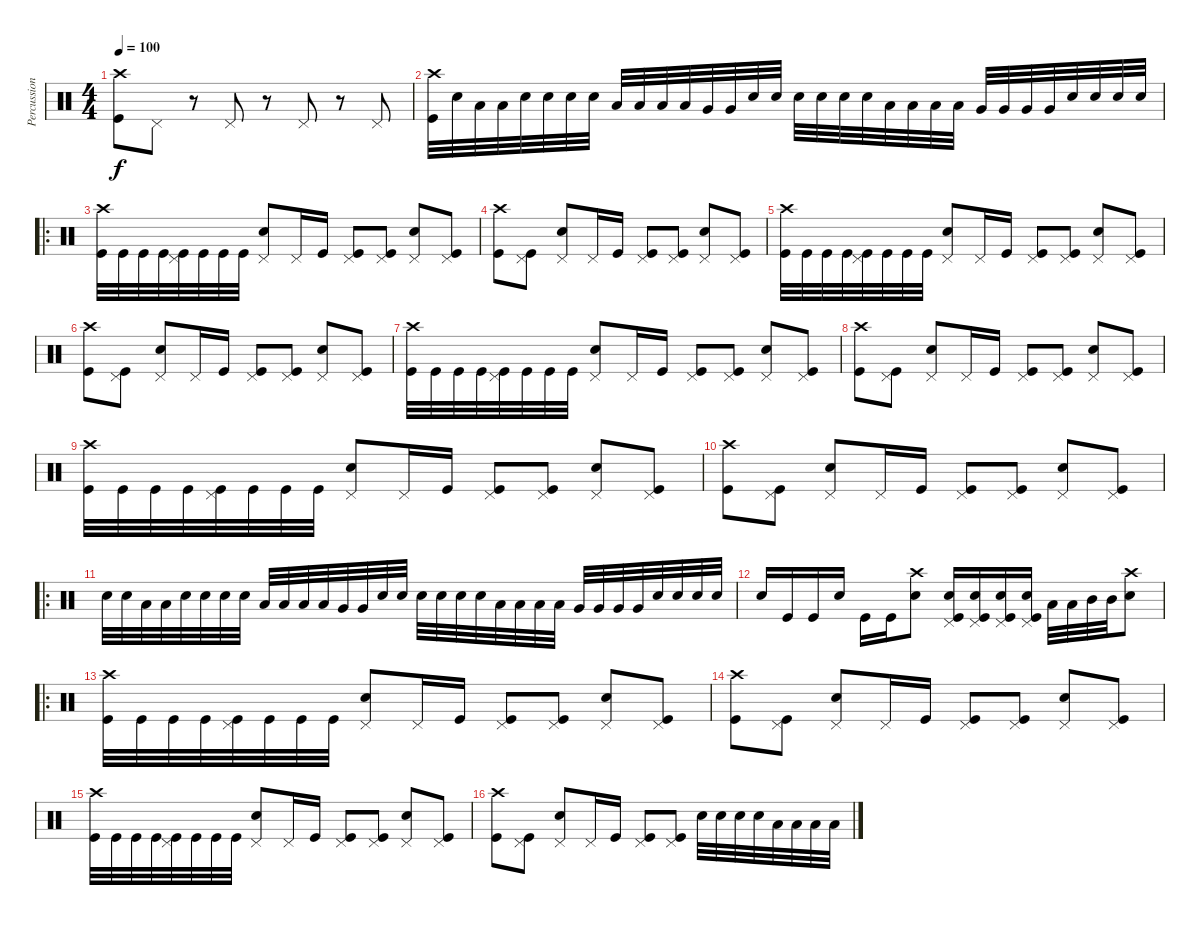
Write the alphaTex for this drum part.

\track ("Percussion" "Percussion") {instrument percussion}
\staff {score}
\articulation defaults
\ts (4 4)
\tempo 100
\clef neutral
\ks c
("Crash high (hit)" "Kick (hit)").8{dy f} "Pedal Hi-Hat (hit)".8 r.8 "Pedal Hi-Hat (hit)".8 r.8 "Pedal Hi-Hat (hit)".8 r.8 "Pedal Hi-Hat (hit)".8 |
("Crash high (hit)" "Kick (hit)").32 "Electric Snare (hit)".32 "Low Tom (hit)".32 "Low Tom (hit)".32 "Electric Snare (hit)".32 "Electric Snare (hit)".32 "Electric Snare (hit)".32 "Electric Snare (hit)".32 "Low Tom (hit)".32 "Low Tom (hit)".32 "Low Tom (hit)".32 "Low Tom (hit)".32 "Very Low Tom (hit)".32 "Very Low Tom (hit)".32 "Electric Snare (hit)".32 "Electric Snare (hit)".32 "Electric Snare (hit)".32 "Electric Snare (hit)".32 "Electric Snare (hit)".32 "Electric Snare (hit)".32 "Low Tom (hit)".32 "Low Tom (hit)".32 "Low Tom (hit)".32 "Low Tom (hit)".32 "Very Low Tom (hit)".32 "Very Low Tom (hit)".32 "Very Low Tom (hit)".32 "Very Low Tom (hit)".32 "Electric Snare (hit)".32 "Electric Snare (hit)".32 "Electric Snare (hit)".32 "Electric Snare (hit)".32 |
\ro
("Crash high (hit)" "Kick (hit)").32 "Kick (hit)".32 "Kick (hit)".32 "Kick (hit)".32 ("Pedal Hi-Hat (hit)" "Kick (hit)").32 "Kick (hit)".32 "Kick (hit)".32 "Kick (hit)".32 ("Pedal Hi-Hat (hit)" "Electric Snare (hit)").8 "Pedal Hi-Hat (hit)".16 "Kick (hit)".16 ("Pedal Hi-Hat (hit)" "Kick (hit)").8 ("Pedal Hi-Hat (hit)" "Kick (hit)").8 ("Pedal Hi-Hat (hit)" "Electric Snare (hit)").8 ("Pedal Hi-Hat (hit)" "Kick (hit)").8 |
("Crash high (hit)" "Kick (hit)").8 ("Pedal Hi-Hat (hit)" "Kick (hit)").8 ("Pedal Hi-Hat (hit)" "Electric Snare (hit)").8 "Pedal Hi-Hat (hit)".16 "Kick (hit)".16 ("Pedal Hi-Hat (hit)" "Kick (hit)").8 ("Pedal Hi-Hat (hit)" "Kick (hit)").8 ("Pedal Hi-Hat (hit)" "Electric Snare (hit)").8 ("Pedal Hi-Hat (hit)" "Kick (hit)").8 |
("Crash high (hit)" "Kick (hit)").32 "Kick (hit)".32 "Kick (hit)".32 "Kick (hit)".32 ("Pedal Hi-Hat (hit)" "Kick (hit)").32 "Kick (hit)".32 "Kick (hit)".32 "Kick (hit)".32 ("Pedal Hi-Hat (hit)" "Electric Snare (hit)").8 "Pedal Hi-Hat (hit)".16 "Kick (hit)".16 ("Pedal Hi-Hat (hit)" "Kick (hit)").8 ("Pedal Hi-Hat (hit)" "Kick (hit)").8 ("Pedal Hi-Hat (hit)" "Electric Snare (hit)").8 ("Pedal Hi-Hat (hit)" "Kick (hit)").8 |
("Crash high (hit)" "Kick (hit)").8 ("Pedal Hi-Hat (hit)" "Kick (hit)").8 ("Pedal Hi-Hat (hit)" "Electric Snare (hit)").8 "Pedal Hi-Hat (hit)".16 "Kick (hit)".16 ("Pedal Hi-Hat (hit)" "Kick (hit)").8 ("Pedal Hi-Hat (hit)" "Kick (hit)").8 ("Pedal Hi-Hat (hit)" "Electric Snare (hit)").8 ("Pedal Hi-Hat (hit)" "Kick (hit)").8 |
("Crash high (hit)" "Kick (hit)").32 "Kick (hit)".32 "Kick (hit)".32 "Kick (hit)".32 ("Pedal Hi-Hat (hit)" "Kick (hit)").32 "Kick (hit)".32 "Kick (hit)".32 "Kick (hit)".32 ("Pedal Hi-Hat (hit)" "Electric Snare (hit)").8 "Pedal Hi-Hat (hit)".16 "Kick (hit)".16 ("Pedal Hi-Hat (hit)" "Kick (hit)").8 ("Pedal Hi-Hat (hit)" "Kick (hit)").8 ("Pedal Hi-Hat (hit)" "Electric Snare (hit)").8 ("Pedal Hi-Hat (hit)" "Kick (hit)").8 |
("Crash high (hit)" "Kick (hit)").8 ("Pedal Hi-Hat (hit)" "Kick (hit)").8 ("Pedal Hi-Hat (hit)" "Electric Snare (hit)").8 "Pedal Hi-Hat (hit)".16 "Kick (hit)".16 ("Pedal Hi-Hat (hit)" "Kick (hit)").8 ("Pedal Hi-Hat (hit)" "Kick (hit)").8 ("Pedal Hi-Hat (hit)" "Electric Snare (hit)").8 ("Pedal Hi-Hat (hit)" "Kick (hit)").8 |
("Crash high (hit)" "Kick (hit)").32 "Kick (hit)".32 "Kick (hit)".32 "Kick (hit)".32 ("Pedal Hi-Hat (hit)" "Kick (hit)").32 "Kick (hit)".32 "Kick (hit)".32 "Kick (hit)".32 ("Pedal Hi-Hat (hit)" "Electric Snare (hit)").8 "Pedal Hi-Hat (hit)".16 "Kick (hit)".16 ("Pedal Hi-Hat (hit)" "Kick (hit)").8 ("Pedal Hi-Hat (hit)" "Kick (hit)").8 ("Pedal Hi-Hat (hit)" "Electric Snare (hit)").8 ("Pedal Hi-Hat (hit)" "Kick (hit)").8 |
("Crash high (hit)" "Kick (hit)").8 ("Pedal Hi-Hat (hit)" "Kick (hit)").8 ("Pedal Hi-Hat (hit)" "Electric Snare (hit)").8 "Pedal Hi-Hat (hit)".16 "Kick (hit)".16 ("Pedal Hi-Hat (hit)" "Kick (hit)").8 ("Pedal Hi-Hat (hit)" "Kick (hit)").8 ("Pedal Hi-Hat (hit)" "Electric Snare (hit)").8 ("Pedal Hi-Hat (hit)" "Kick (hit)").8 |
\ro "Electric Snare (hit)".32 "Electric Snare (hit)".32 "Low Tom (hit)".32 "Low Tom (hit)".32 "Electric Snare (hit)".32 "Electric Snare (hit)".32 "Electric Snare (hit)".32 "Electric Snare (hit)".32 "Low Tom (hit)".32 "Low Tom (hit)".32 "Low Tom (hit)".32 "Low Tom (hit)".32 "Very Low Tom (hit)".32 "Very Low Tom (hit)".32 "Electric Snare (hit)".32 "Electric Snare (hit)".32 "Electric Snare (hit)".32 "Electric Snare (hit)".32 "Electric Snare (hit)".32 "Electric Snare (hit)".32 "Low Tom (hit)".32 "Low Tom (hit)".32 "Low Tom (hit)".32 "Low Tom (hit)".32 "Very Low Tom (hit)".32 "Very Low Tom (hit)".32 "Very Low Tom (hit)".32 "Very Low Tom (hit)".32 "Electric Snare (hit)".32 "Electric Snare (hit)".32 "Electric Snare (hit)".32 "Electric Snare (hit)".32
|
"Electric Snare (hit)".16 "Kick (hit)".16 "Kick (hit)".16 "Electric Snare (hit)".16 "Kick (hit)".16 "Kick (hit)".16 ("Crash high (hit)" "Electric Snare (hit)").8 ("Pedal Hi-Hat (hit)" "Electric Snare (hit)" "Kick (hit)").16 ("Pedal Hi-Hat (hit)" "Electric Snare (hit)" "Kick (hit)").16 ("Pedal Hi-Hat (hit)" "Electric Snare (hit)" "Kick (hit)").16 ("Pedal Hi-Hat (hit)" "Electric Snare (hit)" "Kick (hit)").16 "Low Tom (hit)".32 "Low Tom (hit)".32 "Mid Tom (hit)".32 "Mid Tom (hit)".32 ("Crash high (hit)" "Electric Snare (hit)").8 |
\ro
("Crash high (hit)" "Kick (hit)").32 "Kick (hit)".32 "Kick (hit)".32 "Kick (hit)".32 ("Pedal Hi-Hat (hit)" "Kick (hit)").32 "Kick (hit)".32 "Kick (hit)".32 "Kick (hit)".32 ("Pedal Hi-Hat (hit)" "Electric Snare (hit)").8 "Pedal Hi-Hat (hit)".16 "Kick (hit)".16 ("Pedal Hi-Hat (hit)" "Kick (hit)").8 ("Pedal Hi-Hat (hit)" "Kick (hit)").8 ("Pedal Hi-Hat (hit)" "Electric Snare (hit)").8 ("Pedal Hi-Hat (hit)" "Kick (hit)").8 |
("Crash high (hit)" "Kick (hit)").8 ("Pedal Hi-Hat (hit)" "Kick (hit)").8 ("Pedal Hi-Hat (hit)" "Electric Snare (hit)").8 "Pedal Hi-Hat (hit)".16 "Kick (hit)".16 ("Pedal Hi-Hat (hit)" "Kick (hit)").8 ("Pedal Hi-Hat (hit)" "Kick (hit)").8 ("Pedal Hi-Hat (hit)" "Electric Snare (hit)").8 ("Pedal Hi-Hat (hit)" "Kick (hit)").8 |
("Crash high (hit)" "Kick (hit)").32 "Kick (hit)".32 "Kick (hit)".32 "Kick (hit)".32 ("Pedal Hi-Hat (hit)" "Kick (hit)").32 "Kick (hit)".32 "Kick (hit)".32 "Kick (hit)".32 ("Pedal Hi-Hat (hit)" "Electric Snare (hit)").8 "Pedal Hi-Hat (hit)".16 "Kick (hit)".16 ("Pedal Hi-Hat (hit)" "Kick (hit)").8 ("Pedal Hi-Hat (hit)" "Kick (hit)").8 ("Pedal Hi-Hat (hit)" "Electric Snare (hit)").8 ("Pedal Hi-Hat (hit)" "Kick (hit)").8 |
("Crash high (hit)" "Kick (hit)").8 ("Pedal Hi-Hat (hit)" "Kick (hit)").8 ("Pedal Hi-Hat (hit)" "Electric Snare (hit)").8 "Pedal Hi-Hat (hit)".16 "Kick (hit)".16 ("Pedal Hi-Hat (hit)" "Kick (hit)").8 ("Pedal Hi-Hat (hit)" "Kick (hit)").8 "Electric Snare (hit)".32 "Electric Snare (hit)".32 "Electric Snare (hit)".32 "Electric Snare (hit)".32 "Low Tom (hit)".32 "Low Tom (hit)".32 "Low Tom (hit)".32 "Low Tom (hit)".32
